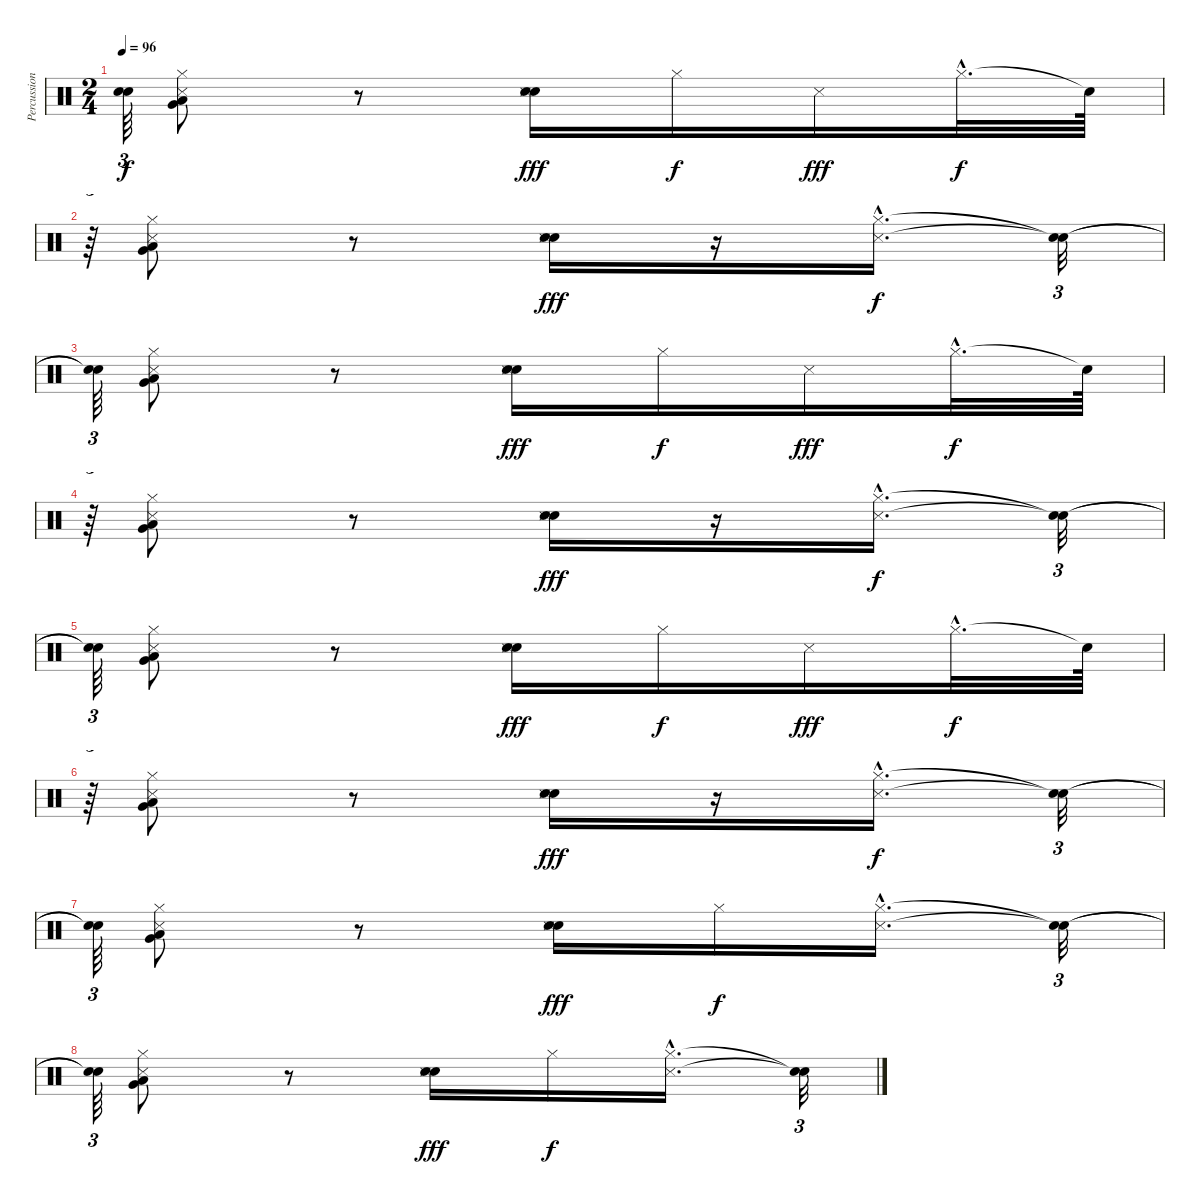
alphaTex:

\track ("Percussion" "Percussion") {instrument percussion}
\staff {score}
\articulation defaults
\ts (2 4)
\tempo 96
\clef neutral
\ks c
("Snare (hit)"{t} "Snare (hit)"{t}).64{tu (3 2) dy f} ("Hi-Hat (closed)" "Snare (side stick) 3" "Very Low Tom (hit)" "Low Floor Tom (hit)").8 r.8 ("Electric Snare (hit)" "Snare (side stick) 3" "Snare (hit) 2").16{dy fff} "Hi-Hat (closed)".16{dy f} "Snare (side stick) 3".16{dy fff} "Hi-Hat (closed)"{hac}.32{d dy f} "Snare (hit)"{t}.64 |
r.64{tu (3 2)} ("Hi-Hat (closed)" "Snare (side stick) 3" "Very Low Tom (hit)" "Low Floor Tom (hit)").8 r.8 ("Electric Snare (hit)" "Snare (side stick) 3" "Snare (hit) 2").16{dy fff} r.16 ("Hi-Hat (closed)"{hac} "Snare (side stick) 3"{hac}).16{d dy f} ("Snare (hit)"{t} "Snare (hit)"{t}).32{tu (3 2)} |
("Snare (hit)"{t} "Snare (hit)"{t}).64{tu (3 2)} ("Hi-Hat (closed)" "Snare (side stick) 3" "Very Low Tom (hit)" "Low Floor Tom (hit)").8 r.8 ("Electric Snare (hit)" "Snare (side stick) 3" "Snare (hit) 2").16{dy fff} "Hi-Hat (closed)".16{dy f} "Snare (side stick) 3".16{dy fff} "Hi-Hat (closed)"{hac}.32{d dy f} "Snare (hit)"{t}.64 |
r.64{tu (3 2)} ("Hi-Hat (closed)" "Snare (side stick) 3" "Very Low Tom (hit)" "Low Floor Tom (hit)").8 r.8 ("Electric Snare (hit)" "Snare (side stick) 3" "Snare (hit) 2").16{dy fff} r.16 ("Hi-Hat (closed)"{hac} "Snare (side stick) 3"{hac}).16{d dy f} ("Snare (hit)"{t} "Snare (hit)"{t}).32{tu (3 2)} |
("Snare (hit)"{t} "Snare (hit)"{t}).64{tu (3 2)} ("Hi-Hat (closed)" "Snare (side stick) 3" "Very Low Tom (hit)" "Low Floor Tom (hit)").8 r.8 ("Electric Snare (hit)" "Snare (side stick) 3" "Snare (hit) 2").16{dy fff} "Hi-Hat (closed)".16{dy f} "Snare (side stick) 3".16{dy fff} "Hi-Hat (closed)"{hac}.32{d dy f} "Snare (hit)"{t}.64 |
r.64{tu (3 2)} ("Hi-Hat (closed)" "Snare (side stick) 3" "Very Low Tom (hit)" "Low Floor Tom (hit)").8 r.8 ("Electric Snare (hit)" "Snare (side stick) 3" "Snare (hit) 2").16{dy fff} r.16 ("Hi-Hat (closed)"{hac} "Snare (side stick) 3"{hac}).16{d dy f} ("Snare (hit)"{t} "Snare (hit)"{t}).32{tu (3 2)} |
("Snare (hit)"{t} "Snare (hit)"{t}).64{tu (3 2)} ("Hi-Hat (closed)" "Snare (side stick) 3" "Very Low Tom (hit)" "Low Floor Tom (hit)").8 r.8 ("Electric Snare (hit)" "Snare (side stick) 3" "Snare (hit) 2").16{dy fff} "Hi-Hat (closed)".16{dy f} ("Hi-Hat (closed)"{hac} "Snare (side stick) 3"{hac}).16{d} ("Snare (hit)"{t} "Snare (hit)"{t}).32{tu (3 2)} |
("Snare (hit)"{t} "Snare (hit)"{t}).64{tu (3 2)} ("Hi-Hat (closed)" "Snare (side stick) 3" "Very Low Tom (hit)" "Low Floor Tom (hit)").8 r.8 ("Electric Snare (hit)" "Snare (side stick) 3" "Snare (hit) 2").16{dy fff} "Hi-Hat (closed)".16{dy f} ("Hi-Hat (closed)"{hac} "Snare (side stick) 3"{hac}).16{d} ("Snare (hit)"{t} "Snare (hit)"{t}).32{tu (3 2)}
